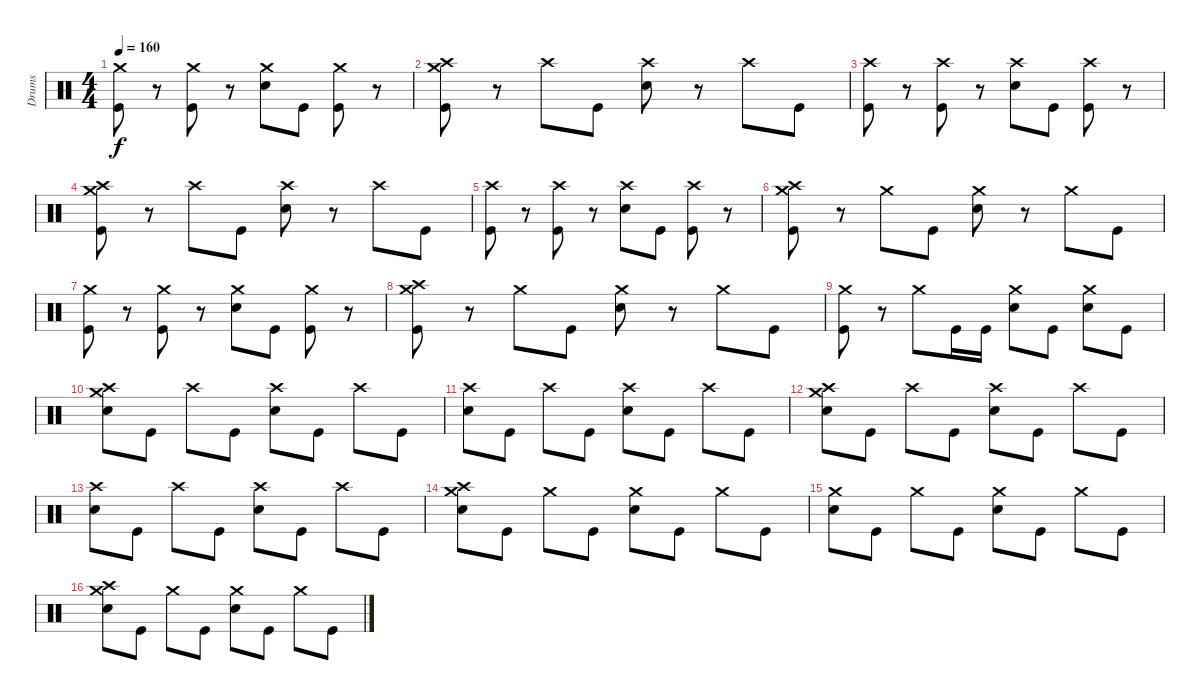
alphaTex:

\track ("Drums" "Drums") {instrument percussion}
\staff {score}
\articulation defaults
\ts (4 4)
\tempo 160
\clef neutral
\ks c
("Crash medium (hit)" "Kick (hit)").8{dy f} r.8 ("Crash medium (hit)" "Kick (hit)").8 r.8 ("Crash medium (hit)" "Electric Snare (hit)").8 "Kick (hit)".8 ("Crash medium (hit)" "Kick (hit)").8 r.8 |
("Crash medium (hit)" "Crash high (hit)" "Kick (hit)").8 r.8 "Crash high (hit)".8 "Kick (hit)".8 ("Crash high (hit)" "Electric Snare (hit)").8 r.8 "Crash high (hit)".8 "Kick (hit)".8 |
("Crash high (hit)" "Kick (hit)").8 r.8 ("Crash high (hit)" "Kick (hit)").8 r.8 ("Crash high (hit)" "Electric Snare (hit)").8 "Kick (hit)".8 ("Crash high (hit)" "Kick (hit)").8 r.8 |
("Crash medium (hit)" "Crash high (hit)" "Kick (hit)").8 r.8 "Crash high (hit)".8 "Kick (hit)".8 ("Crash high (hit)" "Electric Snare (hit)").8 r.8 "Crash high (hit)".8 "Kick (hit)".8 |
("Crash high (hit)" "Kick (hit)").8 r.8 ("Crash high (hit)" "Kick (hit)").8 r.8 ("Crash high (hit)" "Electric Snare (hit)").8 "Kick (hit)".8 ("Crash high (hit)" "Kick (hit)").8 r.8 |
("Crash high (hit)" "Crash medium (hit)" "Kick (hit)").8 r.8 "Crash medium (hit)".8 "Kick (hit)".8 ("Crash medium (hit)" "Electric Snare (hit)").8 r.8 "Crash medium (hit)".8 "Kick (hit)".8 |
("Crash medium (hit)" "Kick (hit)").8 r.8 ("Crash medium (hit)" "Kick (hit)").8 r.8 ("Crash medium (hit)" "Electric Snare (hit)").8 "Kick (hit)".8 ("Crash medium (hit)" "Kick (hit)").8 r.8 |
("Crash high (hit)" "Crash medium (hit)" "Kick (hit)").8 r.8 "Crash medium (hit)".8 "Kick (hit)".8 ("Crash medium (hit)" "Electric Snare (hit)").8 r.8 "Crash medium (hit)".8 "Kick (hit)".8 |
("Crash medium (hit)" "Kick (hit)").8 r.8 "Crash medium (hit)".8 "Kick (hit)".16 "Kick (hit)".16 ("Crash medium (hit)" "Electric Snare (hit)").8 "Kick (hit)".8 ("Crash medium (hit)" "Electric Snare (hit)").8 "Kick (hit)".8 |
("Crash medium (hit)" "Crash high (hit)" "Electric Snare (hit)").8 "Kick (hit)".8 "Crash high (hit)".8 "Kick (hit)".8 ("Crash high (hit)" "Electric Snare (hit)").8 "Kick (hit)".8 "Crash high (hit)".8 "Kick (hit)".8 |
("Crash high (hit)" "Electric Snare (hit)").8 "Kick (hit)".8 "Crash high (hit)".8 "Kick (hit)".8 ("Crash high (hit)" "Electric Snare (hit)").8 "Kick (hit)".8 "Crash high (hit)".8 "Kick (hit)".8 |
("Crash medium (hit)" "Crash high (hit)" "Electric Snare (hit)").8 "Kick (hit)".8 "Crash high (hit)".8 "Kick (hit)".8 ("Crash high (hit)" "Electric Snare (hit)").8 "Kick (hit)".8 "Crash high (hit)".8 "Kick (hit)".8 |
("Crash high (hit)" "Electric Snare (hit)").8 "Kick (hit)".8 "Crash high (hit)".8 "Kick (hit)".8 ("Crash high (hit)" "Electric Snare (hit)").8 "Kick (hit)".8 "Crash high (hit)".8 "Kick (hit)".8 |
("Crash high (hit)" "Crash medium (hit)" "Electric Snare (hit)").8 "Kick (hit)".8 "Crash medium (hit)".8 "Kick (hit)".8 ("Crash medium (hit)" "Electric Snare (hit)").8 "Kick (hit)".8 "Crash medium (hit)".8 "Kick (hit)".8 |
("Crash medium (hit)" "Electric Snare (hit)").8 "Kick (hit)".8 "Crash medium (hit)".8 "Kick (hit)".8 ("Crash medium (hit)" "Electric Snare (hit)").8 "Kick (hit)".8 "Crash medium (hit)".8 "Kick (hit)".8 |
("Crash high (hit)" "Crash medium (hit)" "Electric Snare (hit)").8 "Kick (hit)".8 "Crash medium (hit)".8 "Kick (hit)".8 ("Crash medium (hit)" "Electric Snare (hit)").8 "Kick (hit)".8 "Crash medium (hit)".8 "Kick (hit)".8
